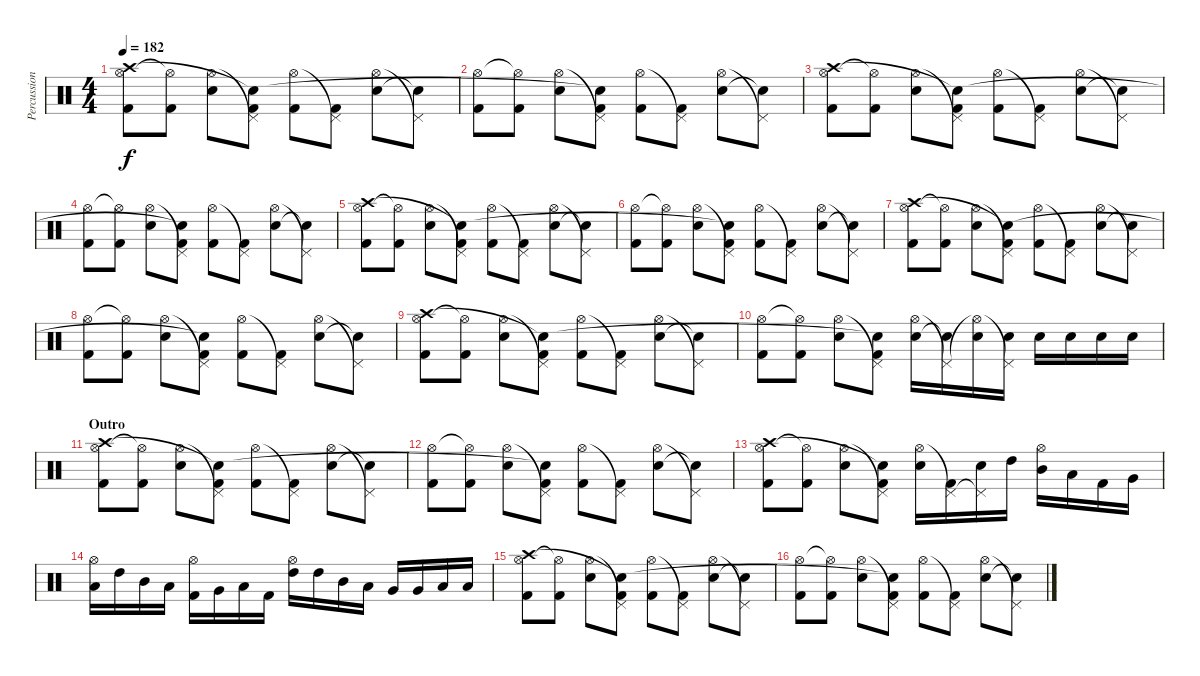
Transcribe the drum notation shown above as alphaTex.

\track ("Percussion" "Percussion") {instrument percussion}
\staff {score}
\articulation defaults
\ts (4 4)
\tempo 182
\clef neutral
\ks c
("Hi-Hat (open)" "Kick (hit) 2" "Crash high (hit)").8{dy f} ("Hi-Hat (open)"{t} "Kick (hit) 2").8 ("Hi-Hat (open)" "Electric Snare (hit)").8 ("Pedal Hi-Hat (hit)"{t} "Kick (hit) 2" "Snare (hit)"{t}).8 ("Hi-Hat (open)" "Kick (hit) 2").8 ("Pedal Hi-Hat (hit)"{t} "Kick (hit) 2").8 ("Hi-Hat (open)" "Electric Snare (hit)").8 ("Pedal Hi-Hat (hit)"{t} "Snare (hit)"{t}).8 |
("Hi-Hat (open)" "Kick (hit) 2").8 ("Hi-Hat (open)"{t} "Kick (hit) 2").8 ("Hi-Hat (open)" "Electric Snare (hit)").8 ("Pedal Hi-Hat (hit)"{t} "Kick (hit) 2" "Snare (hit)"{t}).8 ("Hi-Hat (open)" "Kick (hit) 2").8 ("Pedal Hi-Hat (hit)"{t} "Kick (hit) 2").8 ("Hi-Hat (open)" "Electric Snare (hit)").8 ("Pedal Hi-Hat (hit)"{t} "Snare (hit)"{t}).8 |
("Hi-Hat (open)" "Kick (hit) 2" "Crash high (hit)").8 ("Hi-Hat (open)"{t} "Kick (hit) 2").8 ("Hi-Hat (open)" "Electric Snare (hit)").8 ("Pedal Hi-Hat (hit)"{t} "Kick (hit) 2" "Snare (hit)"{t}).8 ("Hi-Hat (open)" "Kick (hit) 2").8 ("Pedal Hi-Hat (hit)"{t} "Kick (hit) 2").8 ("Hi-Hat (open)" "Electric Snare (hit)").8 ("Pedal Hi-Hat (hit)"{t} "Snare (hit)"{t}).8 |
("Hi-Hat (open)" "Kick (hit) 2").8 ("Hi-Hat (open)"{t} "Kick (hit) 2").8 ("Hi-Hat (open)" "Electric Snare (hit)").8 ("Pedal Hi-Hat (hit)"{t} "Kick (hit) 2" "Snare (hit)"{t}).8 ("Hi-Hat (open)" "Kick (hit) 2").8 ("Pedal Hi-Hat (hit)"{t} "Kick (hit) 2").8 ("Hi-Hat (open)" "Electric Snare (hit)").8 ("Pedal Hi-Hat (hit)"{t} "Snare (hit)"{t}).8 |
("Hi-Hat (open)" "Kick (hit) 2" "Crash high (hit)").8 ("Hi-Hat (open)"{t} "Kick (hit) 2").8 ("Hi-Hat (open)" "Electric Snare (hit)").8 ("Pedal Hi-Hat (hit)"{t} "Kick (hit) 2" "Snare (hit)"{t}).8 ("Hi-Hat (open)" "Kick (hit) 2").8 ("Pedal Hi-Hat (hit)"{t} "Kick (hit) 2").8 ("Hi-Hat (open)" "Electric Snare (hit)").8 ("Pedal Hi-Hat (hit)"{t} "Snare (hit)"{t}).8 |
("Hi-Hat (open)" "Kick (hit) 2").8 ("Hi-Hat (open)"{t} "Kick (hit) 2").8 ("Hi-Hat (open)" "Electric Snare (hit)").8 ("Pedal Hi-Hat (hit)"{t} "Kick (hit) 2" "Snare (hit)"{t}).8 ("Hi-Hat (open)" "Kick (hit) 2").8 ("Pedal Hi-Hat (hit)"{t} "Kick (hit) 2").8 ("Hi-Hat (open)" "Electric Snare (hit)").8 ("Pedal Hi-Hat (hit)"{t} "Snare (hit)"{t}).8 |
("Hi-Hat (open)" "Kick (hit) 2" "Crash high (hit)").8 ("Hi-Hat (open)"{t} "Kick (hit) 2").8 ("Hi-Hat (open)" "Electric Snare (hit)").8 ("Pedal Hi-Hat (hit)"{t} "Kick (hit) 2" "Snare (hit)"{t}).8 ("Hi-Hat (open)" "Kick (hit) 2").8 ("Pedal Hi-Hat (hit)"{t} "Kick (hit) 2").8 ("Hi-Hat (open)" "Electric Snare (hit)").8 ("Pedal Hi-Hat (hit)"{t} "Snare (hit)"{t}).8 |
("Hi-Hat (open)" "Kick (hit) 2").8 ("Hi-Hat (open)"{t} "Kick (hit) 2").8 ("Hi-Hat (open)" "Electric Snare (hit)").8 ("Pedal Hi-Hat (hit)"{t} "Kick (hit) 2" "Snare (hit)"{t}).8 ("Hi-Hat (open)" "Kick (hit) 2").8 ("Pedal Hi-Hat (hit)"{t} "Kick (hit) 2").8 ("Hi-Hat (open)" "Electric Snare (hit)").8 ("Pedal Hi-Hat (hit)"{t} "Snare (hit)"{t}).8 |
("Hi-Hat (open)" "Kick (hit) 2" "Crash high (hit)").8 ("Hi-Hat (open)"{t} "Kick (hit) 2").8 ("Hi-Hat (open)" "Electric Snare (hit)").8 ("Pedal Hi-Hat (hit)"{t} "Kick (hit) 2" "Snare (hit)"{t}).8 ("Hi-Hat (open)" "Kick (hit) 2").8 ("Pedal Hi-Hat (hit)"{t} "Kick (hit) 2").8 ("Hi-Hat (open)" "Electric Snare (hit)").8 ("Pedal Hi-Hat (hit)"{t} "Snare (hit)"{t}).8 |
("Hi-Hat (open)" "Kick (hit) 2").8 ("Hi-Hat (open)"{t} "Kick (hit) 2").8 ("Hi-Hat (open)" "Electric Snare (hit)").8 ("Pedal Hi-Hat (hit)"{t} "Kick (hit) 2" "Snare (hit)"{t}).8 ("Hi-Hat (open)" "Electric Snare (hit)").16 ("Pedal Hi-Hat (hit)"{t} "Electric Snare (hit)"{t}).16 ("Hi-Hat (open)"{t} "Electric Snare (hit)").16 ("Pedal Hi-Hat (hit)"{t} "Electric Snare (hit)").16 "Electric Snare (hit)".16 "Electric Snare (hit)".16 "Electric Snare (hit)".16 "Electric Snare (hit)".16 |
\section ("" "Outro")
("Hi-Hat (open)" "Kick (hit) 2" "Crash high (hit)").8 ("Hi-Hat (open)"{t} "Kick (hit) 2").8 ("Hi-Hat (open)" "Electric Snare (hit)").8 ("Pedal Hi-Hat (hit)"{t} "Kick (hit) 2" "Snare (hit)"{t}).8 ("Hi-Hat (open)" "Kick (hit) 2").8 ("Pedal Hi-Hat (hit)"{t} "Kick (hit) 2").8 ("Hi-Hat (open)" "Electric Snare (hit)").8 ("Pedal Hi-Hat (hit)"{t} "Snare (hit)"{t}).8 |
("Hi-Hat (open)" "Kick (hit) 2").8 ("Hi-Hat (open)"{t} "Kick (hit) 2").8 ("Hi-Hat (open)" "Electric Snare (hit)").8 ("Pedal Hi-Hat (hit)"{t} "Kick (hit) 2" "Snare (hit)"{t}).8 ("Hi-Hat (open)" "Kick (hit) 2").8 ("Pedal Hi-Hat (hit)"{t} "Kick (hit) 2").8 ("Hi-Hat (open)" "Electric Snare (hit)").8 ("Pedal Hi-Hat (hit)"{t} "Snare (hit)"{t}).8 |
("Hi-Hat (open)" "Kick (hit) 2" "Crash high (hit)").8 ("Hi-Hat (open)"{t} "Kick (hit) 2").8 ("Hi-Hat (open)" "Electric Snare (hit)").8 ("Pedal Hi-Hat (hit)"{t} "Kick (hit) 2" "Snare (hit)"{t}).8 ("Hi-Hat (open)" "Electric Snare (hit)").16 ("Pedal Hi-Hat (hit)"{t} "Kick (hit) 2").16 ("Pedal Hi-Hat (hit)"{t} "Electric Snare (hit)").16 "High Tom (hit)".16 ("Hi-Hat (open)" "Mid Tom (hit)").16 "Low Tom (hit)".16 "Kick (hit) 2".16 "Very Low Tom (hit)".16 |
("Hi-Hat (open)" "Low Floor Tom (hit)").16 "High Tom (hit)".16 "Mid Tom (hit)".16 "Low Tom (hit)".16 ("Hi-Hat (open)" "Kick (hit) 2").16 "Very Low Tom (hit)".16 "Low Floor Tom (hit)".16 "Kick (hit) 2".16 ("Hi-Hat (open)" "High Tom (hit)").16 "High Tom (hit)".16 "Mid Tom (hit)".16 "Low Tom (hit)".16 "Very Low Tom (hit)".16 "Very Low Tom (hit)".16 "Low Floor Tom (hit)".16 "Low Floor Tom (hit)".16 |
("Hi-Hat (open)" "Kick (hit) 2" "Crash high (hit)").8 ("Hi-Hat (open)"{t} "Kick (hit) 2").8 ("Hi-Hat (open)" "Electric Snare (hit)").8 ("Pedal Hi-Hat (hit)"{t} "Kick (hit) 2" "Snare (hit)"{t}).8 ("Hi-Hat (open)" "Kick (hit) 2").8 ("Pedal Hi-Hat (hit)"{t} "Kick (hit) 2").8 ("Hi-Hat (open)" "Electric Snare (hit)").8 ("Pedal Hi-Hat (hit)"{t} "Snare (hit)"{t}).8 |
("Hi-Hat (open)" "Kick (hit) 2").8 ("Hi-Hat (open)"{t} "Kick (hit) 2").8 ("Hi-Hat (open)" "Electric Snare (hit)").8 ("Pedal Hi-Hat (hit)"{t} "Kick (hit) 2" "Snare (hit)"{t}).8 ("Hi-Hat (open)" "Kick (hit) 2").8 ("Pedal Hi-Hat (hit)"{t} "Kick (hit) 2").8 ("Hi-Hat (open)" "Electric Snare (hit)").8 ("Pedal Hi-Hat (hit)"{t} "Snare (hit)"{t}).8
